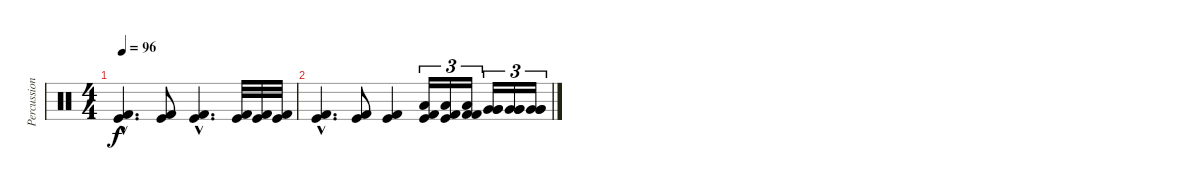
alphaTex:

\track ("Percussion" "Percussion") {instrument percussion}
\staff {score}
\articulation defaults
\ts (4 4)
\tempo 96
\clef neutral
\ks c
("Kick (hit) 2"{hac} "Kick (hit)"{hac}).4{d dy f} ("Kick (hit) 2" "Kick (hit)").8 ("Kick (hit)"{hac} "Kick (hit) 2"{hac}).4{d} ("Kick (hit) 2" "Kick (hit)").32 ("Kick (hit) 2" "Kick (hit)").32 ("Kick (hit) 2" "Kick (hit)").32 |
("Kick (hit) 2"{hac} "Kick (hit)"{hac}).4{d} ("Kick (hit) 2" "Kick (hit)").8 ("Kick (hit)" "Kick (hit) 2").4 ("Low Tom (hit)" "Kick (hit) 2" "Kick (hit)").16{tu (3 2)} ("Low Tom (hit)" "Kick (hit) 2" "Kick (hit)").16{tu (3 2)} ("Low Tom (hit)" "Kick (hit) 2" "Kick (hit) 2").16{tu (3 2)} ("Very Low Tom (hit)" "Very Low Tom (hit)" "Very Low Tom (hit)").16{tu (3 2)} ("Very Low Tom (hit)" "Very Low Tom (hit)" "Very Low Tom (hit)").16{tu (3 2)} ("Very Low Tom (hit)" "Very Low Tom (hit)" "Very Low Tom (hit)").16{tu (3 2)}
